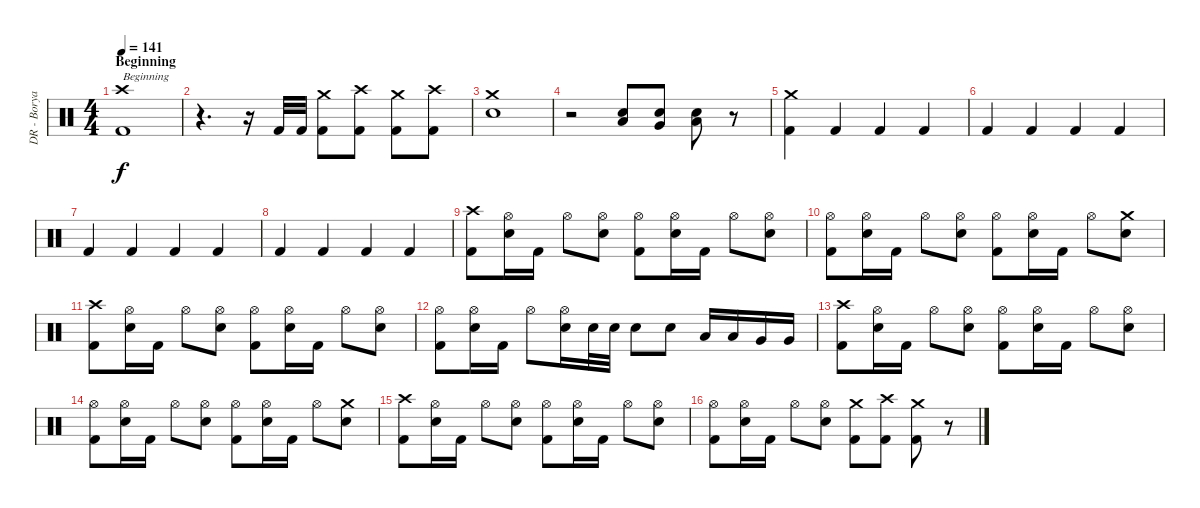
\track ("DR - Borya" "DR - Borya") {instrument percussion}
\staff {score}
\articulation defaults
\ts (4 4)
\section ("" "Beginning")
\tempo 141
\clef neutral
\ks c
("Kick (hit) 2" "Crash high (hit)").1{txt "Beginning" dy f} |
r.4{d} r.16 "Kick (hit) 2".32 "Kick (hit) 2".32 ("Kick (hit) 2" "Crash medium (hit)").8 ("Kick (hit) 2" "Crash high (hit)").8 ("Kick (hit) 2" "Crash medium (hit)").8 ("Kick (hit) 2" "Crash high (hit)").8 |
("Electric Snare (hit)" "Crash medium (hit)").1 |
r.2 ("Electric Snare (hit)" "Low Tom (hit)").8 ("Electric Snare (hit)" "Very Low Tom (hit)").8 ("Electric Snare (hit)" "Low Floor Tom (hit)").8 r.8 |
("Kick (hit) 2" "Crash medium (hit)").4 "Kick (hit) 2".4 "Kick (hit) 2".4 "Kick (hit) 2".4 |
"Kick (hit) 2".4 "Kick (hit) 2".4 "Kick (hit) 2".4 "Kick (hit) 2".4 |
"Kick (hit) 2".4 "Kick (hit) 2".4 "Kick (hit) 2".4 "Kick (hit) 2".4 |
"Kick (hit) 2".4 "Kick (hit) 2".4 "Kick (hit) 2".4 "Kick (hit) 2".4 |
("Kick (hit) 2" "Crash high (hit)").8 ("Electric Snare (hit)" "Hi-Hat (open)").16 "Kick (hit) 2".16 "Hi-Hat (open)".8 ("Electric Snare (hit)" "Hi-Hat (open)").8 ("Kick (hit) 2" "Hi-Hat (open)").8 ("Electric Snare (hit)" "Hi-Hat (open)").16 "Kick (hit) 2".16 "Hi-Hat (open)".8 ("Electric Snare (hit)" "Hi-Hat (open)").8 |
("Kick (hit) 2" "Hi-Hat (open)").8 ("Electric Snare (hit)" "Hi-Hat (open)").16 "Kick (hit) 2".16 "Hi-Hat (open)".8 ("Electric Snare (hit)" "Hi-Hat (open)").8 ("Kick (hit) 2" "Hi-Hat (open)").8 ("Electric Snare (hit)" "Hi-Hat (open)").16 "Kick (hit) 2".16 "Hi-Hat (open)".8 ("Electric Snare (hit)" "Crash medium (hit)").8 |
("Kick (hit) 2" "Crash high (hit)").8 ("Electric Snare (hit)" "Hi-Hat (open)").16 "Kick (hit) 2".16 "Hi-Hat (open)".8 ("Electric Snare (hit)" "Hi-Hat (open)").8 ("Kick (hit) 2" "Hi-Hat (open)").8 ("Electric Snare (hit)" "Hi-Hat (open)").16 "Kick (hit) 2".16 "Hi-Hat (open)".8 ("Electric Snare (hit)" "Hi-Hat (open)").8 |
("Kick (hit) 2" "Hi-Hat (open)").8 ("Electric Snare (hit)" "Hi-Hat (open)").16 "Kick (hit) 2".16 "Hi-Hat (open)".8 ("Electric Snare (hit)" "Hi-Hat (open)").16 "Electric Snare (hit)".32 "Electric Snare (hit)".32 "Electric Snare (hit)".8 "Electric Snare (hit)".8 "Low Tom (hit)".16 "Low Tom (hit)".16 "Very Low Tom (hit)".16 "Very Low Tom (hit)".16 |
("Kick (hit) 2" "Crash high (hit)").8 ("Electric Snare (hit)" "Hi-Hat (open)").16 "Kick (hit) 2".16 "Hi-Hat (open)".8 ("Electric Snare (hit)" "Hi-Hat (open)").8 ("Kick (hit) 2" "Hi-Hat (open)").8 ("Electric Snare (hit)" "Hi-Hat (open)").16 "Kick (hit) 2".16 "Hi-Hat (open)".8 ("Electric Snare (hit)" "Hi-Hat (open)").8 |
("Kick (hit) 2" "Hi-Hat (open)").8 ("Electric Snare (hit)" "Hi-Hat (open)").16 "Kick (hit) 2".16 "Hi-Hat (open)".8 ("Electric Snare (hit)" "Hi-Hat (open)").8 ("Kick (hit) 2" "Hi-Hat (open)").8 ("Electric Snare (hit)" "Hi-Hat (open)").16 "Kick (hit) 2".16 "Hi-Hat (open)".8 ("Electric Snare (hit)" "Crash medium (hit)").8 |
("Kick (hit) 2" "Crash high (hit)").8 ("Electric Snare (hit)" "Hi-Hat (open)").16 "Kick (hit) 2".16 "Hi-Hat (open)".8 ("Electric Snare (hit)" "Hi-Hat (open)").8 ("Kick (hit) 2" "Hi-Hat (open)").8 ("Electric Snare (hit)" "Hi-Hat (open)").16 "Kick (hit) 2".16 "Hi-Hat (open)".8 ("Electric Snare (hit)" "Hi-Hat (open)").8 |
("Kick (hit) 2" "Hi-Hat (open)").8 ("Electric Snare (hit)" "Hi-Hat (open)").16 "Kick (hit) 2".16 "Hi-Hat (open)".8 ("Electric Snare (hit)" "Hi-Hat (open)").8 ("Kick (hit) 2" "Crash medium (hit)").8 ("Kick (hit) 2" "Crash high (hit)").8 ("Kick (hit) 2" "Crash medium (hit)").8 r.8
